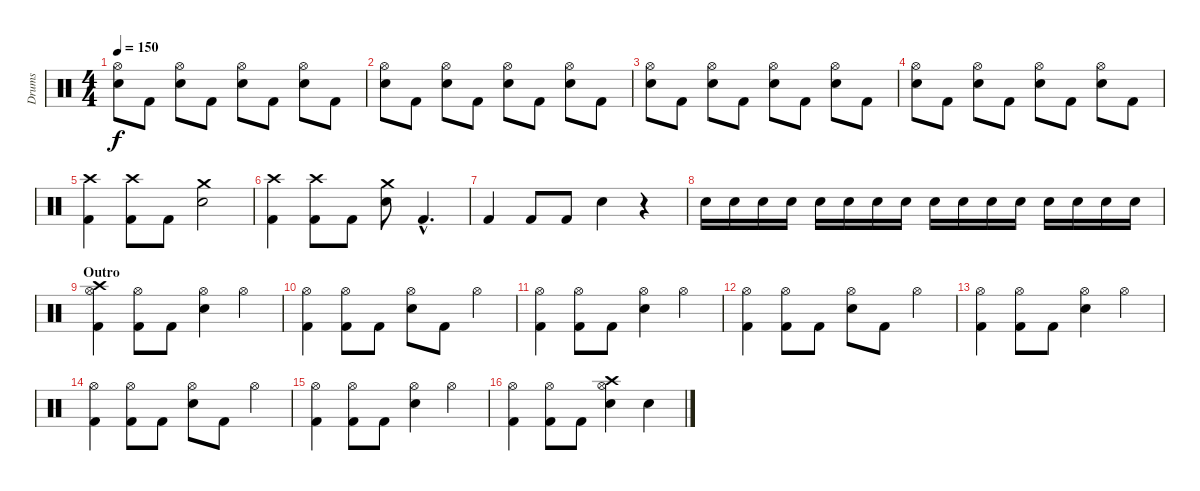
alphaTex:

\track ("Drums" "Drums") {instrument percussion}
\staff {score}
\articulation defaults
\ts (4 4)
\tempo 150
\clef neutral
\ks c
("Electric Snare (hit)" "Hi-Hat (open)").8{dy f} "Kick (hit) 2".8 ("Electric Snare (hit)" "Hi-Hat (open)").8 "Kick (hit) 2".8 ("Electric Snare (hit)" "Hi-Hat (open)").8 "Kick (hit) 2".8 ("Electric Snare (hit)" "Hi-Hat (open)").8 "Kick (hit) 2".8 |
("Electric Snare (hit)" "Hi-Hat (open)").8 "Kick (hit) 2".8 ("Electric Snare (hit)" "Hi-Hat (open)").8 "Kick (hit) 2".8 ("Electric Snare (hit)" "Hi-Hat (open)").8 "Kick (hit) 2".8 ("Electric Snare (hit)" "Hi-Hat (open)").8 "Kick (hit) 2".8 |
("Electric Snare (hit)" "Hi-Hat (open)").8 "Kick (hit) 2".8 ("Electric Snare (hit)" "Hi-Hat (open)").8 "Kick (hit) 2".8 ("Electric Snare (hit)" "Hi-Hat (open)").8 "Kick (hit) 2".8 ("Electric Snare (hit)" "Hi-Hat (open)").8 "Kick (hit) 2".8 |
("Electric Snare (hit)" "Hi-Hat (open)").8 "Kick (hit) 2".8 ("Electric Snare (hit)" "Hi-Hat (open)").8 "Kick (hit) 2".8 ("Electric Snare (hit)" "Hi-Hat (open)").8 "Kick (hit) 2".8 ("Electric Snare (hit)" "Hi-Hat (open)").8 "Kick (hit) 2".8 |
("Kick (hit) 2" "Crash high (hit)").4 ("Kick (hit) 2" "Crash high (hit)").8 "Kick (hit) 2".8 ("Electric Snare (hit)" "Crash medium (hit)").2 |
("Kick (hit) 2" "Crash high (hit)").4 ("Kick (hit) 2" "Crash high (hit)").8 "Kick (hit) 2".8 ("Electric Snare (hit)" "Crash medium (hit)").8 "Kick (hit) 2"{hac}.4{d} |
"Kick (hit) 2".4 "Kick (hit) 2".8 "Kick (hit) 2".8 "Electric Snare (hit)".4 r.4{volume 4} |
"Electric Snare (hit)".16{volume 12} "Electric Snare (hit)".16 "Electric Snare (hit)".16 "Electric Snare (hit)".16 "Electric Snare (hit)".16 "Electric Snare (hit)".16 "Electric Snare (hit)".16 "Electric Snare (hit)".16 "Electric Snare (hit)".16 "Electric Snare (hit)".16 "Electric Snare (hit)".16 "Electric Snare (hit)".16 "Electric Snare (hit)".16 "Electric Snare (hit)".16 "Electric Snare (hit)".16 "Electric Snare (hit)".16 |
\section ("" "Outro")
("Kick (hit) 2" "Crash high (hit)" "Hi-Hat (open)").4 ("Kick (hit) 2" "Hi-Hat (open)").8 "Kick (hit) 2".8 ("Electric Snare (hit)" "Hi-Hat (open)").4 "Hi-Hat (open)".4 |
("Kick (hit) 2" "Hi-Hat (open)").4 ("Kick (hit) 2" "Hi-Hat (open)").8 "Kick (hit) 2".8 ("Electric Snare (hit)" "Hi-Hat (open)").8 "Kick (hit) 2".8 "Hi-Hat (open)".4 |
("Kick (hit) 2" "Hi-Hat (open)").4 ("Kick (hit) 2" "Hi-Hat (open)").8 "Kick (hit) 2".8 ("Electric Snare (hit)" "Hi-Hat (open)").4 "Hi-Hat (open)".4 |
("Kick (hit) 2" "Hi-Hat (open)").4 ("Kick (hit) 2" "Hi-Hat (open)").8 "Kick (hit) 2".8 ("Electric Snare (hit)" "Hi-Hat (open)").8 "Kick (hit) 2".8 "Hi-Hat (open)".4 |
("Kick (hit) 2" "Hi-Hat (open)").4 ("Kick (hit) 2" "Hi-Hat (open)").8 "Kick (hit) 2".8 ("Electric Snare (hit)" "Hi-Hat (open)").4 "Hi-Hat (open)".4 |
("Kick (hit) 2" "Hi-Hat (open)").4 ("Kick (hit) 2" "Hi-Hat (open)").8 "Kick (hit) 2".8 ("Electric Snare (hit)" "Hi-Hat (open)").8 "Kick (hit) 2".8 "Hi-Hat (open)".4 |
("Kick (hit) 2" "Hi-Hat (open)").4 ("Kick (hit) 2" "Hi-Hat (open)").8 "Kick (hit) 2".8 ("Electric Snare (hit)" "Hi-Hat (open)").4 "Hi-Hat (open)".4 |
("Kick (hit) 2" "Hi-Hat (open)").4 ("Kick (hit) 2" "Hi-Hat (open)").8 "Kick (hit) 2".8 ("Electric Snare (hit)" "Crash high (hit)" "Hi-Hat (open)").4 "Electric Snare (hit)".4
